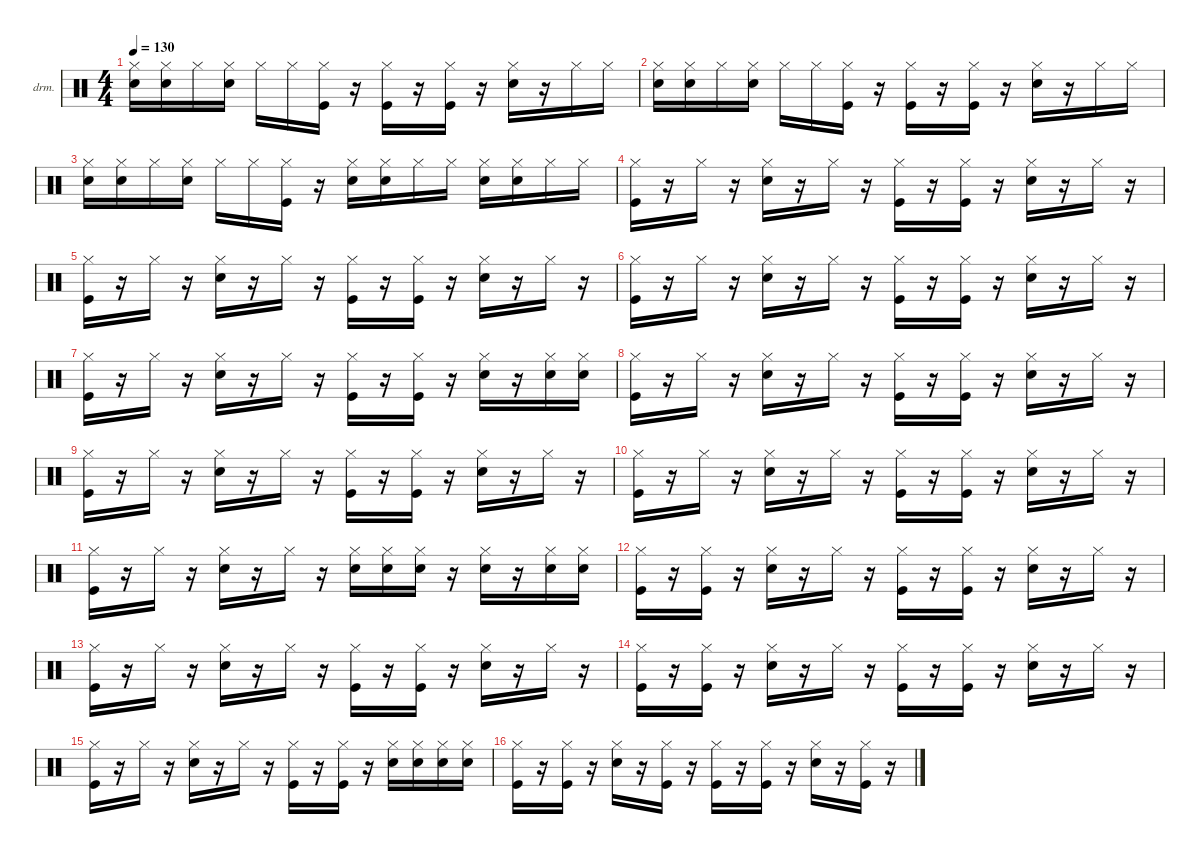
\hideDynamics
\bracketExtendMode nobrackets
\firstSystemTrackNameOrientation horizontal
\otherSystemsTrackNameOrientation horizontal
\track ("韩子钰" "drm.") {instrument percussion}
\staff {score}
\articulation defaults
\ts (4 4)
\tempo 130
\clef neutral
\ks c
("Snare (hit) 2" "Hi-Hat (closed)").16{dy fff} ("Snare (hit) 2" "Hi-Hat (closed)").16 "Hi-Hat (closed)".16 ("Snare (hit) 2" "Hi-Hat (closed)").16 "Hi-Hat (closed)".16 "Hi-Hat (closed)".16 ("Kick (hit)" "Hi-Hat (closed)").16 r.16 ("Kick (hit)" "Hi-Hat (closed)").16 r.16 ("Kick (hit)" "Hi-Hat (closed)").16 r.16 ("Snare (hit) 2" "Hi-Hat (closed)").16 r.16 "Hi-Hat (closed)".16 "Hi-Hat (closed)".16 |
("Snare (hit) 2" "Hi-Hat (closed)").16 ("Snare (hit) 2" "Hi-Hat (closed)").16 "Hi-Hat (closed)".16 ("Snare (hit) 2" "Hi-Hat (closed)").16 "Hi-Hat (closed)".16 "Hi-Hat (closed)".16 ("Kick (hit)" "Hi-Hat (closed)").16 r.16 ("Kick (hit)" "Hi-Hat (closed)").16 r.16 ("Kick (hit)" "Hi-Hat (closed)").16 r.16 ("Snare (hit) 2" "Hi-Hat (closed)").16 r.16 "Hi-Hat (closed)".16 "Hi-Hat (closed)".16 |
("Snare (hit) 2" "Hi-Hat (closed)").16 ("Snare (hit) 2" "Hi-Hat (closed)").16 "Hi-Hat (closed)".16 ("Snare (hit) 2" "Hi-Hat (closed)").16 "Hi-Hat (closed)".16 "Hi-Hat (closed)".16 ("Kick (hit)" "Hi-Hat (closed)").16 r.16 ("Snare (hit) 2" "Hi-Hat (closed)").16 ("Snare (hit) 2" "Hi-Hat (closed)").16 "Hi-Hat (closed)".16 "Hi-Hat (closed)".16 ("Snare (hit) 2" "Hi-Hat (closed)").16 ("Snare (hit) 2" "Hi-Hat (closed)").16 "Hi-Hat (closed)".16 "Hi-Hat (closed)".16 |
("Kick (hit)" "Hi-Hat (closed)").16 r.16 "Hi-Hat (closed)".16 r.16 ("Snare (hit) 2" "Hi-Hat (closed)").16 r.16 "Hi-Hat (closed)".16 r.16 ("Kick (hit)" "Hi-Hat (closed)").16 r.16 ("Kick (hit)" "Hi-Hat (closed)").16 r.16 ("Snare (hit) 2" "Hi-Hat (closed)").16 r.16 "Hi-Hat (closed)".16 r.16 |
("Kick (hit)" "Hi-Hat (closed)").16 r.16 "Hi-Hat (closed)".16 r.16 ("Snare (hit) 2" "Hi-Hat (closed)").16 r.16 "Hi-Hat (closed)".16 r.16 ("Kick (hit)" "Hi-Hat (closed)").16 r.16 ("Kick (hit)" "Hi-Hat (closed)").16 r.16 ("Snare (hit) 2" "Hi-Hat (closed)").16 r.16 "Hi-Hat (closed)".16 r.16 |
("Kick (hit)" "Hi-Hat (closed)").16 r.16 "Hi-Hat (closed)".16 r.16 ("Snare (hit) 2" "Hi-Hat (closed)").16 r.16 "Hi-Hat (closed)".16 r.16 ("Kick (hit)" "Hi-Hat (closed)").16 r.16 ("Kick (hit)" "Hi-Hat (closed)").16 r.16 ("Snare (hit) 2" "Hi-Hat (closed)").16 r.16 "Hi-Hat (closed)".16 r.16 |
("Kick (hit)" "Hi-Hat (closed)").16 r.16 "Hi-Hat (closed)".16 r.16 ("Snare (hit) 2" "Hi-Hat (closed)").16 r.16 "Hi-Hat (closed)".16 r.16 ("Kick (hit)" "Hi-Hat (closed)").16 r.16 ("Kick (hit)" "Hi-Hat (closed)").16 r.16 ("Snare (hit) 2" "Hi-Hat (closed)").16 r.16 ("Snare (hit) 2" "Hi-Hat (closed)").16 ("Snare (hit) 2" "Hi-Hat (closed)").16 |
("Kick (hit)" "Hi-Hat (closed)").16 r.16 "Hi-Hat (closed)".16 r.16 ("Snare (hit) 2" "Hi-Hat (closed)").16 r.16 "Hi-Hat (closed)".16 r.16 ("Kick (hit)" "Hi-Hat (closed)").16 r.16 ("Kick (hit)" "Hi-Hat (closed)").16 r.16 ("Snare (hit) 2" "Hi-Hat (closed)").16 r.16 "Hi-Hat (closed)".16 r.16 |
("Kick (hit)" "Hi-Hat (closed)").16 r.16 "Hi-Hat (closed)".16 r.16 ("Snare (hit) 2" "Hi-Hat (closed)").16 r.16 "Hi-Hat (closed)".16 r.16 ("Kick (hit)" "Hi-Hat (closed)").16 r.16 ("Kick (hit)" "Hi-Hat (closed)").16 r.16 ("Snare (hit) 2" "Hi-Hat (closed)").16 r.16 "Hi-Hat (closed)".16 r.16 |
("Kick (hit)" "Hi-Hat (closed)").16 r.16 "Hi-Hat (closed)".16 r.16 ("Snare (hit) 2" "Hi-Hat (closed)").16 r.16 "Hi-Hat (closed)".16 r.16 ("Kick (hit)" "Hi-Hat (closed)").16 r.16 ("Kick (hit)" "Hi-Hat (closed)").16 r.16 ("Snare (hit) 2" "Hi-Hat (closed)").16 r.16 "Hi-Hat (closed)".16 r.16 |
("Kick (hit)" "Hi-Hat (closed)").16 r.16 "Hi-Hat (closed)".16 r.16 ("Snare (hit) 2" "Hi-Hat (closed)").16 r.16 "Hi-Hat (closed)".16 r.16 ("Snare (hit) 2" "Hi-Hat (closed)").16 ("Snare (hit) 2" "Hi-Hat (closed)").16 ("Snare (hit) 2" "Hi-Hat (closed)").16 r.16 ("Snare (hit) 2" "Hi-Hat (closed)").16 r.16 ("Snare (hit) 2" "Hi-Hat (closed)").16 ("Snare (hit) 2" "Hi-Hat (closed)").16 |
("Kick (hit)" "Hi-Hat (closed)").16 r.16 ("Kick (hit)" "Hi-Hat (closed)").16 r.16 ("Snare (hit) 2" "Hi-Hat (closed)").16 r.16 "Hi-Hat (closed)".16 r.16 ("Kick (hit)" "Hi-Hat (closed)").16 r.16 ("Kick (hit)" "Hi-Hat (closed)").16 r.16 ("Snare (hit) 2" "Hi-Hat (closed)").16 r.16 "Hi-Hat (closed)".16 r.16 |
("Kick (hit)" "Hi-Hat (closed)").16 r.16 "Hi-Hat (closed)".16 r.16 ("Snare (hit) 2" "Hi-Hat (closed)").16 r.16 "Hi-Hat (closed)".16 r.16 ("Kick (hit)" "Hi-Hat (closed)").16 r.16 ("Kick (hit)" "Hi-Hat (closed)").16 r.16 ("Snare (hit) 2" "Hi-Hat (closed)").16 r.16 "Hi-Hat (closed)".16 r.16 |
("Kick (hit)" "Hi-Hat (closed)").16 r.16 ("Kick (hit)" "Hi-Hat (closed)").16 r.16 ("Snare (hit) 2" "Hi-Hat (closed)").16 r.16 "Hi-Hat (closed)".16 r.16 ("Kick (hit)" "Hi-Hat (closed)").16 r.16 ("Kick (hit)" "Hi-Hat (closed)").16 r.16 ("Snare (hit) 2" "Hi-Hat (closed)").16 r.16 "Hi-Hat (closed)".16 r.16 |
("Kick (hit)" "Hi-Hat (closed)").16 r.16 "Hi-Hat (closed)".16 r.16 ("Snare (hit) 2" "Hi-Hat (closed)").16 r.16 "Hi-Hat (closed)".16 r.16 ("Kick (hit)" "Hi-Hat (closed)").16 r.16 ("Kick (hit)" "Hi-Hat (closed)").16 r.16 ("Snare (hit) 2" "Hi-Hat (closed)").16 ("Snare (hit) 2" "Hi-Hat (closed)").16 ("Snare (hit) 2" "Hi-Hat (closed)").16 ("Snare (hit) 2" "Hi-Hat (closed)").16 |
("Kick (hit)" "Hi-Hat (closed)").16 r.16 ("Kick (hit)" "Hi-Hat (closed)").16 r.16 ("Snare (hit) 2" "Hi-Hat (closed)").16 r.16 ("Kick (hit)" "Hi-Hat (closed)").16 r.16 ("Kick (hit)" "Hi-Hat (closed)").16 r.16 ("Kick (hit)" "Hi-Hat (closed)").16 r.16 ("Snare (hit) 2" "Hi-Hat (closed)").16 r.16 ("Kick (hit)" "Hi-Hat (closed)").16 r.16
